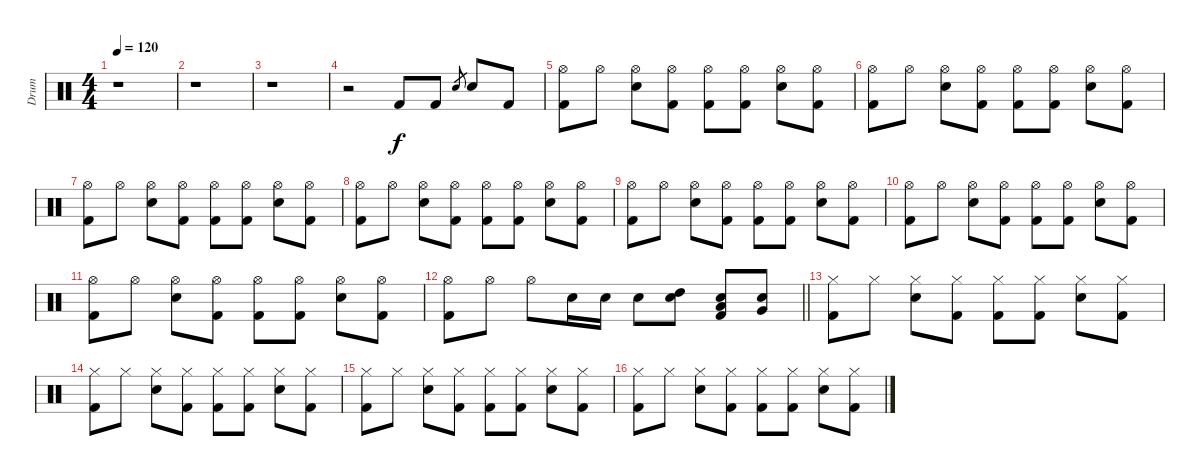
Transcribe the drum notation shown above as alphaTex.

\track ("Drum" "Drum") {instrument percussion}
\staff {score}
\articulation defaults
\ts (4 4)
\tempo 120
\clef neutral
\ks c
r.1{dy f} |
r.1 |
r.1 |
r.2 "Kick (hit) 2".8 "Kick (hit) 2".8 "Snare (hit) 2".8{gr} "Snare (hit) 2".8 "Kick (hit) 2".8 |
("Hi-Hat (open)" "Kick (hit) 2").8 "Hi-Hat (open)".8 ("Hi-Hat (open)" "Snare (hit) 2").8 ("Hi-Hat (open)" "Kick (hit) 2").8 ("Hi-Hat (open)" "Kick (hit) 2").8 ("Hi-Hat (open)" "Kick (hit) 2").8 ("Hi-Hat (open)" "Snare (hit) 2").8 ("Hi-Hat (open)" "Kick (hit) 2").8 |
("Hi-Hat (open)" "Kick (hit) 2").8 "Hi-Hat (open)".8 ("Hi-Hat (open)" "Snare (hit) 2").8 ("Hi-Hat (open)" "Kick (hit) 2").8 ("Hi-Hat (open)" "Kick (hit) 2").8 ("Hi-Hat (open)" "Kick (hit) 2").8 ("Hi-Hat (open)" "Snare (hit) 2").8 ("Hi-Hat (open)" "Kick (hit) 2").8 |
("Hi-Hat (open)" "Kick (hit) 2").8 "Hi-Hat (open)".8 ("Hi-Hat (open)" "Snare (hit) 2").8 ("Hi-Hat (open)" "Kick (hit) 2").8 ("Hi-Hat (open)" "Kick (hit) 2").8 ("Hi-Hat (open)" "Kick (hit) 2").8 ("Hi-Hat (open)" "Snare (hit) 2").8 ("Hi-Hat (open)" "Kick (hit) 2").8 |
("Hi-Hat (open)" "Kick (hit) 2").8 "Hi-Hat (open)".8 ("Hi-Hat (open)" "Snare (hit) 2").8 ("Hi-Hat (open)" "Kick (hit) 2").8 ("Hi-Hat (open)" "Kick (hit) 2").8 ("Hi-Hat (open)" "Kick (hit) 2").8 ("Hi-Hat (open)" "Snare (hit) 2").8 ("Hi-Hat (open)" "Kick (hit) 2").8 |
("Hi-Hat (open)" "Kick (hit) 2").8 "Hi-Hat (open)".8 ("Hi-Hat (open)" "Snare (hit) 2").8 ("Hi-Hat (open)" "Kick (hit) 2").8 ("Hi-Hat (open)" "Kick (hit) 2").8 ("Hi-Hat (open)" "Kick (hit) 2").8 ("Hi-Hat (open)" "Snare (hit) 2").8 ("Hi-Hat (open)" "Kick (hit) 2").8 |
("Hi-Hat (open)" "Kick (hit) 2").8 "Hi-Hat (open)".8 ("Hi-Hat (open)" "Snare (hit) 2").8 ("Hi-Hat (open)" "Kick (hit) 2").8 ("Hi-Hat (open)" "Kick (hit) 2").8 ("Hi-Hat (open)" "Kick (hit) 2").8 ("Hi-Hat (open)" "Snare (hit) 2").8 ("Hi-Hat (open)" "Kick (hit) 2").8 |
("Hi-Hat (open)" "Kick (hit) 2").8 "Hi-Hat (open)".8 ("Hi-Hat (open)" "Snare (hit) 2").8 ("Hi-Hat (open)" "Kick (hit) 2").8 ("Hi-Hat (open)" "Kick (hit) 2").8 ("Hi-Hat (open)" "Kick (hit) 2").8 ("Hi-Hat (open)" "Snare (hit) 2").8 ("Hi-Hat (open)" "Kick (hit) 2").8 |
\barLineRight lightlight
("Hi-Hat (open)" "Kick (hit) 2").8 "Hi-Hat (open)".8 "Hi-Hat (open)".8 "Snare (hit) 2".16 "Snare (hit) 2".16 "Snare (hit) 2".8 ("High Tom (hit)" "Snare (hit) 2").8 ("Low Tom (hit)" "Snare (hit) 2" "Kick (hit) 2").8 ("Very Low Tom (hit)" "Snare (hit) 2").8 |
("Hi-Hat (closed)" "Kick (hit) 2").8 "Hi-Hat (closed)".8 ("Hi-Hat (closed)" "Snare (hit) 2").8 ("Hi-Hat (closed)" "Kick (hit) 2").8 ("Hi-Hat (closed)" "Kick (hit) 2").8 ("Hi-Hat (closed)" "Kick (hit) 2").8 ("Hi-Hat (closed)" "Snare (hit) 2").8 ("Hi-Hat (closed)" "Kick (hit) 2").8 |
("Hi-Hat (closed)" "Kick (hit) 2").8 "Hi-Hat (closed)".8 ("Hi-Hat (closed)" "Snare (hit) 2").8 ("Hi-Hat (closed)" "Kick (hit) 2").8 ("Hi-Hat (closed)" "Kick (hit) 2").8 ("Hi-Hat (closed)" "Kick (hit) 2").8 ("Hi-Hat (closed)" "Snare (hit) 2").8 ("Hi-Hat (closed)" "Kick (hit) 2").8 |
("Hi-Hat (closed)" "Kick (hit) 2").8 "Hi-Hat (closed)".8 ("Hi-Hat (closed)" "Snare (hit) 2").8 ("Hi-Hat (closed)" "Kick (hit) 2").8 ("Hi-Hat (closed)" "Kick (hit) 2").8 ("Hi-Hat (closed)" "Kick (hit) 2").8 ("Hi-Hat (closed)" "Snare (hit) 2").8 ("Hi-Hat (closed)" "Kick (hit) 2").8 |
("Hi-Hat (closed)" "Kick (hit) 2").8 "Hi-Hat (closed)".8 ("Hi-Hat (closed)" "Snare (hit) 2").8 ("Hi-Hat (closed)" "Kick (hit) 2").8 ("Hi-Hat (closed)" "Kick (hit) 2").8 ("Hi-Hat (closed)" "Kick (hit) 2").8 ("Hi-Hat (closed)" "Snare (hit) 2").8 ("Hi-Hat (closed)" "Kick (hit) 2").8
